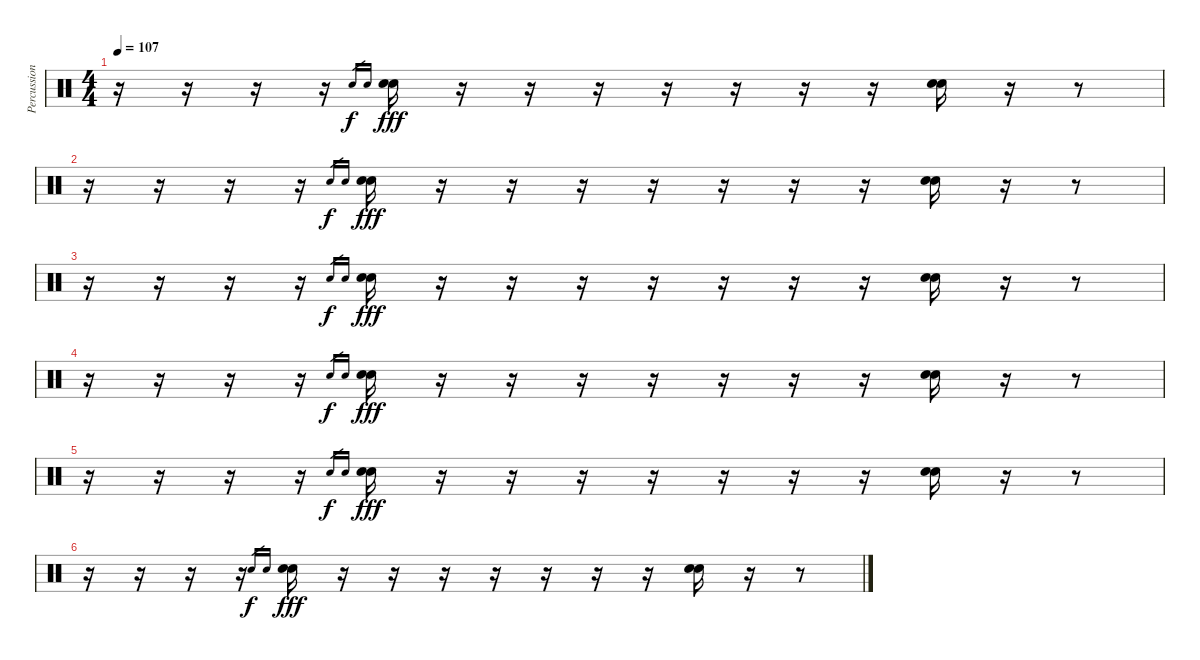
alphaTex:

\track ("Percussions" "Percussion") {instrument percussion}
\staff {score}
\articulation defaults
\ts (4 4)
\tempo 107
\clef neutral
\ks c
r.16{dy f} r.16 r.16 r.16 "Electric Snare (hit)".16{gr} "Electric Snare (hit)".16{gr} ("Electric Snare (hit)" "Electric Snare (hit)").16{dy fff} r.16 r.16 r.16 r.16 r.16 r.16 r.16 ("Electric Snare (hit)" "Electric Snare (hit)").16 r.16 r.8 |
r.16 r.16 r.16 r.16 "Electric Snare (hit)".16{gr dy f} "Electric Snare (hit)".16{gr} ("Electric Snare (hit)" "Electric Snare (hit)").16{dy fff} r.16 r.16 r.16 r.16 r.16 r.16 r.16 ("Electric Snare (hit)" "Electric Snare (hit)").16 r.16 r.8 |
r.16 r.16 r.16 r.16 "Electric Snare (hit)".16{gr dy f} "Electric Snare (hit)".16{gr} ("Electric Snare (hit)" "Electric Snare (hit)").16{dy fff} r.16 r.16 r.16 r.16 r.16 r.16 r.16 ("Electric Snare (hit)" "Electric Snare (hit)").16 r.16 r.8 |
r.16 r.16 r.16 r.16 "Electric Snare (hit)".16{gr dy f} "Electric Snare (hit)".16{gr} ("Electric Snare (hit)" "Electric Snare (hit)").16{dy fff} r.16 r.16 r.16 r.16 r.16 r.16 r.16 ("Electric Snare (hit)" "Electric Snare (hit)").16 r.16 r.8 |
r.16{volume 0} r.16 r.16 r.16 "Electric Snare (hit)".16{gr dy f} "Electric Snare (hit)".16{gr} ("Electric Snare (hit)" "Electric Snare (hit)").16{dy fff} r.16 r.16 r.16 r.16 r.16 r.16 r.16 ("Electric Snare (hit)" "Electric Snare (hit)").16 r.16 r.8 |
r.16 r.16 r.16 r.16 "Electric Snare (hit)".16{gr dy f} "Electric Snare (hit)".16{gr} ("Electric Snare (hit)" "Electric Snare (hit)").16{dy fff} r.16 r.16 r.16 r.16 r.16 r.16 r.16 ("Electric Snare (hit)" "Electric Snare (hit)").16 r.16 r.8
